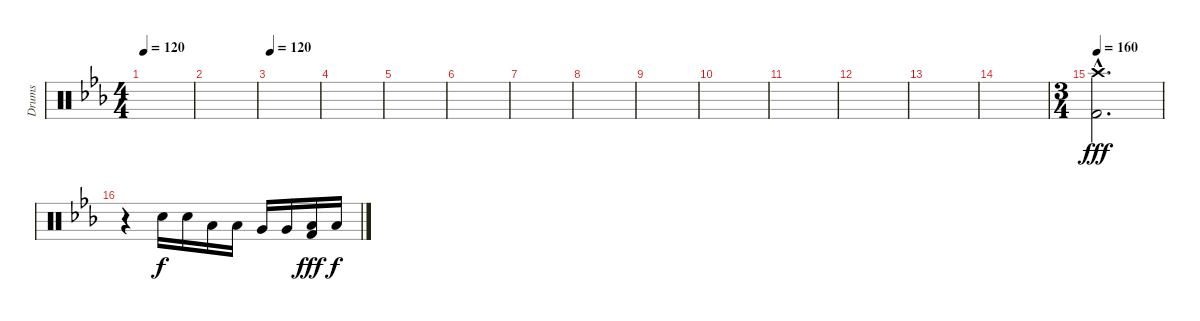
\track ("Drums" "Drums") {instrument percussion}
\staff {score}
\articulation defaults
\ts (4 4)
\tempo 120
\clef neutral
\ks eb
|
|
\tempo 120
|
|
|
|
|
|
|
|
|
|
|
|
\ts (3 4)
\tempo 160
("Crash high (hit)"{hac} "Kick (hit) 2"{hac}).2{d dy fff} |
r.4 "Electric Snare (hit)".16{dy f} "Electric Snare (hit)".16 "Low Tom (hit)".16 "Low Tom (hit)".16 "Very Low Tom (hit)".16 "Very Low Tom (hit)".16 ("Low Floor Tom (hit)" "Kick (hit) 2").16{dy fff} "Low Floor Tom (hit)".16{dy f}
